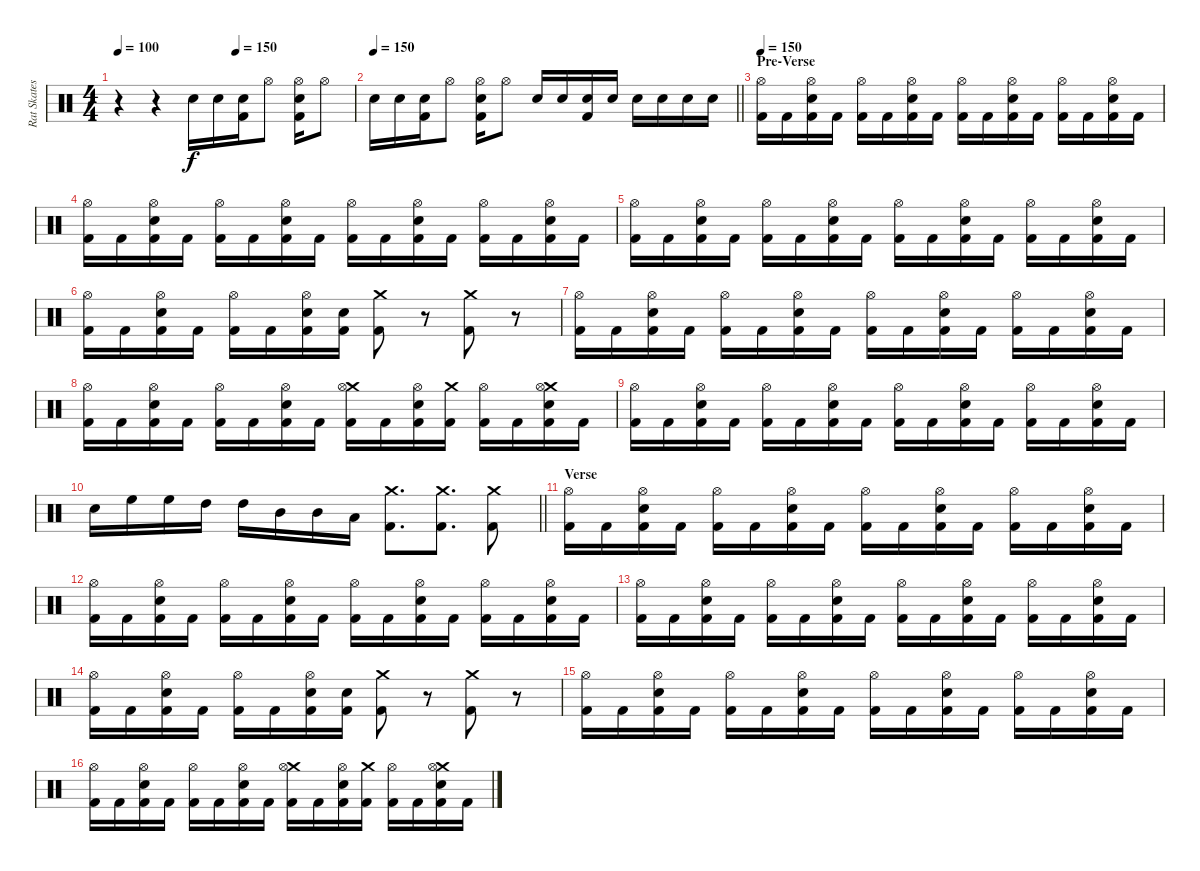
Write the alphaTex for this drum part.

\track ("Rat Skates" "Rat Skates") {instrument percussion}
\staff {score}
\articulation defaults
\ts (4 4)
\tempo 100
\tempo (150 0.5)
\clef neutral
\ks c
r.4{dy f} r.4 "Snare (hit) 2".16 "Snare (hit) 2".16 ("Snare (hit) 2" "Kick (hit) 2").16 "Hi-Hat (open)".8 ("Hi-Hat (open)" "Snare (hit) 2" "Kick (hit) 2").16 "Hi-Hat (open)".8 |
\tempo 150
\barLineRight lightlight "Snare (hit) 2".16 "Snare (hit) 2".16
("Snare (hit) 2" "Kick (hit) 2").16 "Hi-Hat (open)".8 ("Hi-Hat (open)" "Snare (hit) 2" "Kick (hit) 2").16 "Hi-Hat (open)".8 "Snare (hit) 2".16 "Snare (hit) 2".16 ("Snare (hit) 2" "Kick (hit) 2").16 "Snare (hit) 2".16 "Snare (hit) 2".16 "Snare (hit) 2".16 "Snare (hit) 2".16 "Snare (hit) 2".16 |
\section ("" "Pre-Verse")
\tempo 150
("Hi-Hat (open)" "Kick (hit) 2").16 "Kick (hit) 2".16 ("Hi-Hat (open)" "Snare (hit) 2" "Kick (hit) 2").16 "Kick (hit) 2".16 ("Hi-Hat (open)" "Kick (hit) 2").16 "Kick (hit) 2".16 ("Hi-Hat (open)" "Snare (hit) 2" "Kick (hit) 2").16 "Kick (hit) 2".16 ("Hi-Hat (open)" "Kick (hit) 2").16 "Kick (hit) 2".16 ("Hi-Hat (open)" "Snare (hit) 2" "Kick (hit) 2").16 "Kick (hit) 2".16 ("Hi-Hat (open)" "Kick (hit) 2").16 "Kick (hit) 2".16 ("Hi-Hat (open)" "Snare (hit) 2" "Kick (hit) 2").16 "Kick (hit) 2".16 |
("Hi-Hat (open)" "Kick (hit) 2").16 "Kick (hit) 2".16 ("Hi-Hat (open)" "Snare (hit) 2" "Kick (hit) 2").16 "Kick (hit) 2".16 ("Hi-Hat (open)" "Kick (hit) 2").16 "Kick (hit) 2".16 ("Hi-Hat (open)" "Snare (hit) 2" "Kick (hit) 2").16 "Kick (hit) 2".16 ("Hi-Hat (open)" "Kick (hit) 2").16 "Kick (hit) 2".16 ("Hi-Hat (open)" "Snare (hit) 2" "Kick (hit) 2").16 "Kick (hit) 2".16 ("Hi-Hat (open)" "Kick (hit) 2").16 "Kick (hit) 2".16 ("Hi-Hat (open)" "Snare (hit) 2" "Kick (hit) 2").16 "Kick (hit) 2".16 |
("Hi-Hat (open)" "Kick (hit) 2").16 "Kick (hit) 2".16 ("Hi-Hat (open)" "Snare (hit) 2" "Kick (hit) 2").16 "Kick (hit) 2".16 ("Hi-Hat (open)" "Kick (hit) 2").16 "Kick (hit) 2".16 ("Hi-Hat (open)" "Snare (hit) 2" "Kick (hit) 2").16 "Kick (hit) 2".16 ("Hi-Hat (open)" "Kick (hit) 2").16 "Kick (hit) 2".16 ("Hi-Hat (open)" "Snare (hit) 2" "Kick (hit) 2").16 "Kick (hit) 2".16 ("Hi-Hat (open)" "Kick (hit) 2").16 "Kick (hit) 2".16 ("Hi-Hat (open)" "Snare (hit) 2" "Kick (hit) 2").16 "Kick (hit) 2".16 |
("Hi-Hat (open)" "Kick (hit) 2").16 "Kick (hit) 2".16 ("Hi-Hat (open)" "Snare (hit) 2" "Kick (hit) 2").16 "Kick (hit) 2".16 ("Hi-Hat (open)" "Kick (hit) 2").16 "Kick (hit) 2".16 ("Hi-Hat (open)" "Snare (hit) 2" "Kick (hit) 2").16 ("Snare (hit) 2" "Kick (hit) 2").16 ("Crash medium (hit)" "Kick (hit) 2").8 r.8 ("Crash medium (hit)" "Kick (hit) 2").8 r.8 |
("Hi-Hat (open)" "Kick (hit) 2").16 "Kick (hit) 2".16 ("Hi-Hat (open)" "Snare (hit) 2" "Kick (hit) 2").16 "Kick (hit) 2".16 ("Hi-Hat (open)" "Kick (hit) 2").16 "Kick (hit) 2".16 ("Hi-Hat (open)" "Snare (hit) 2" "Kick (hit) 2").16 "Kick (hit) 2".16 ("Hi-Hat (open)" "Kick (hit) 2").16 "Kick (hit) 2".16 ("Hi-Hat (open)" "Snare (hit) 2" "Kick (hit) 2").16 "Kick (hit) 2".16 ("Hi-Hat (open)" "Kick (hit) 2").16 "Kick (hit) 2".16 ("Hi-Hat (open)" "Snare (hit) 2" "Kick (hit) 2").16 "Kick (hit) 2".16 |
("Hi-Hat (open)" "Kick (hit) 2").16 "Kick (hit) 2".16 ("Hi-Hat (open)" "Snare (hit) 2" "Kick (hit) 2").16 "Kick (hit) 2".16 ("Hi-Hat (open)" "Kick (hit) 2").16 "Kick (hit) 2".16 ("Hi-Hat (open)" "Snare (hit) 2" "Kick (hit) 2").16 "Kick (hit) 2".16 ("Crash medium (hit)" "Hi-Hat (open)" "Kick (hit) 2").16 "Kick (hit) 2".16 ("Hi-Hat (open)" "Snare (hit) 2" "Kick (hit) 2").16 ("Crash medium (hit)" "Kick (hit) 2").16 ("Hi-Hat (open)" "Kick (hit) 2").16 "Kick (hit) 2".16 ("Crash medium (hit)" "Hi-Hat (open)" "Snare (hit) 2" "Kick (hit) 2").16 "Kick (hit) 2".16 |
("Hi-Hat (open)" "Kick (hit) 2").16 "Kick (hit) 2".16 ("Hi-Hat (open)" "Snare (hit) 2" "Kick (hit) 2").16 "Kick (hit) 2".16 ("Hi-Hat (open)" "Kick (hit) 2").16 "Kick (hit) 2".16 ("Hi-Hat (open)" "Snare (hit) 2" "Kick (hit) 2").16 "Kick (hit) 2".16 ("Hi-Hat (open)" "Kick (hit) 2").16 "Kick (hit) 2".16 ("Hi-Hat (open)" "Snare (hit) 2" "Kick (hit) 2").16 "Kick (hit) 2".16 ("Hi-Hat (open)" "Kick (hit) 2").16 "Kick (hit) 2".16 ("Hi-Hat (open)" "Snare (hit) 2" "Kick (hit) 2").16 "Kick (hit) 2".16 |
\barLineRight lightlight "Snare (hit) 2".16 "High Floor Tom (hit)".16 "High Floor Tom (hit)".16 "High Tom (hit)".16 "High Tom (hit)".16 "Mid Tom (hit)".16 "Mid Tom (hit)".16 "Low Tom (hit)".16
("Crash medium (hit)" "Kick (hit) 2").8{d} ("Crash medium (hit)" "Kick (hit) 2").8{d} ("Crash medium (hit)" "Kick (hit) 2").8 |
\section ("" "Verse")
("Hi-Hat (open)" "Kick (hit) 2").16 "Kick (hit) 2".16 ("Hi-Hat (open)" "Snare (hit) 2" "Kick (hit) 2").16 "Kick (hit) 2".16 ("Hi-Hat (open)" "Kick (hit) 2").16 "Kick (hit) 2".16 ("Hi-Hat (open)" "Snare (hit) 2" "Kick (hit) 2").16 "Kick (hit) 2".16 ("Hi-Hat (open)" "Kick (hit) 2").16 "Kick (hit) 2".16 ("Hi-Hat (open)" "Snare (hit) 2" "Kick (hit) 2").16 "Kick (hit) 2".16 ("Hi-Hat (open)" "Kick (hit) 2").16 "Kick (hit) 2".16 ("Hi-Hat (open)" "Snare (hit) 2" "Kick (hit) 2").16 "Kick (hit) 2".16 |
("Hi-Hat (open)" "Kick (hit) 2").16 "Kick (hit) 2".16 ("Hi-Hat (open)" "Snare (hit) 2" "Kick (hit) 2").16 "Kick (hit) 2".16 ("Hi-Hat (open)" "Kick (hit) 2").16 "Kick (hit) 2".16 ("Hi-Hat (open)" "Snare (hit) 2" "Kick (hit) 2").16 "Kick (hit) 2".16 ("Hi-Hat (open)" "Kick (hit) 2").16 "Kick (hit) 2".16 ("Hi-Hat (open)" "Snare (hit) 2" "Kick (hit) 2").16 "Kick (hit) 2".16 ("Hi-Hat (open)" "Kick (hit) 2").16 "Kick (hit) 2".16 ("Hi-Hat (open)" "Snare (hit) 2" "Kick (hit) 2").16 "Kick (hit) 2".16 |
("Hi-Hat (open)" "Kick (hit) 2").16 "Kick (hit) 2".16 ("Hi-Hat (open)" "Snare (hit) 2" "Kick (hit) 2").16 "Kick (hit) 2".16 ("Hi-Hat (open)" "Kick (hit) 2").16 "Kick (hit) 2".16 ("Hi-Hat (open)" "Snare (hit) 2" "Kick (hit) 2").16 "Kick (hit) 2".16 ("Hi-Hat (open)" "Kick (hit) 2").16 "Kick (hit) 2".16 ("Hi-Hat (open)" "Snare (hit) 2" "Kick (hit) 2").16 "Kick (hit) 2".16 ("Hi-Hat (open)" "Kick (hit) 2").16 "Kick (hit) 2".16 ("Hi-Hat (open)" "Snare (hit) 2" "Kick (hit) 2").16 "Kick (hit) 2".16 |
("Hi-Hat (open)" "Kick (hit) 2").16 "Kick (hit) 2".16 ("Hi-Hat (open)" "Snare (hit) 2" "Kick (hit) 2").16 "Kick (hit) 2".16 ("Hi-Hat (open)" "Kick (hit) 2").16 "Kick (hit) 2".16 ("Hi-Hat (open)" "Snare (hit) 2" "Kick (hit) 2").16 ("Snare (hit) 2" "Kick (hit) 2").16 ("Crash medium (hit)" "Kick (hit) 2").8 r.8 ("Crash medium (hit)" "Kick (hit) 2").8 r.8 |
("Hi-Hat (open)" "Kick (hit) 2").16 "Kick (hit) 2".16 ("Hi-Hat (open)" "Snare (hit) 2" "Kick (hit) 2").16 "Kick (hit) 2".16 ("Hi-Hat (open)" "Kick (hit) 2").16 "Kick (hit) 2".16 ("Hi-Hat (open)" "Snare (hit) 2" "Kick (hit) 2").16 "Kick (hit) 2".16 ("Hi-Hat (open)" "Kick (hit) 2").16 "Kick (hit) 2".16 ("Hi-Hat (open)" "Snare (hit) 2" "Kick (hit) 2").16 "Kick (hit) 2".16 ("Hi-Hat (open)" "Kick (hit) 2").16 "Kick (hit) 2".16 ("Hi-Hat (open)" "Snare (hit) 2" "Kick (hit) 2").16 "Kick (hit) 2".16 |
("Hi-Hat (open)" "Kick (hit) 2").16 "Kick (hit) 2".16 ("Hi-Hat (open)" "Snare (hit) 2" "Kick (hit) 2").16 "Kick (hit) 2".16 ("Hi-Hat (open)" "Kick (hit) 2").16 "Kick (hit) 2".16 ("Hi-Hat (open)" "Snare (hit) 2" "Kick (hit) 2").16 "Kick (hit) 2".16 ("Crash medium (hit)" "Hi-Hat (open)" "Kick (hit) 2").16 "Kick (hit) 2".16 ("Hi-Hat (open)" "Snare (hit) 2" "Kick (hit) 2").16 ("Crash medium (hit)" "Kick (hit) 2").16 ("Hi-Hat (open)" "Kick (hit) 2").16 "Kick (hit) 2".16 ("Crash medium (hit)" "Hi-Hat (open)" "Snare (hit) 2" "Kick (hit) 2").16 "Kick (hit) 2".16
